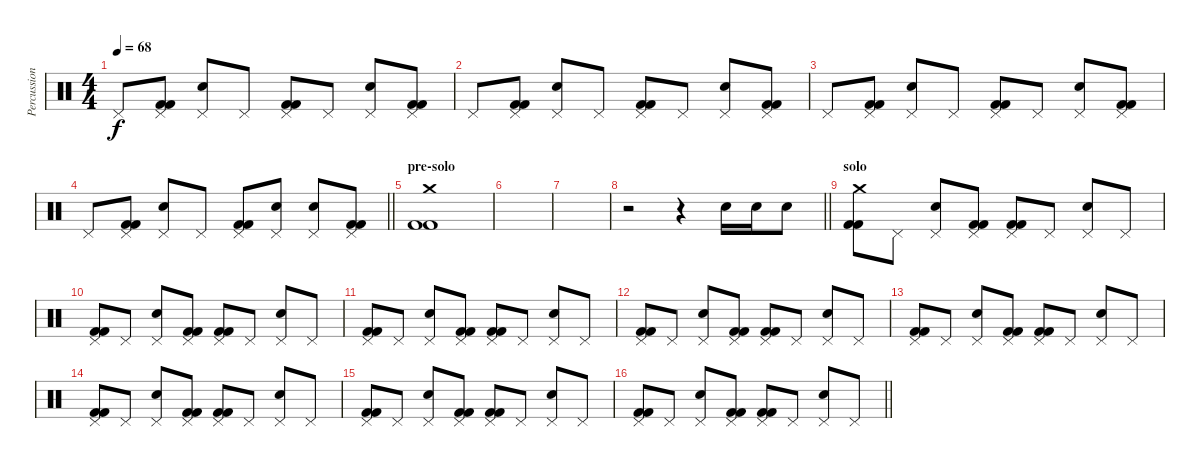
\track ("Percussion" "Percussion") {instrument percussion}
\staff {score}
\articulation defaults
\ts (4 4)
\tempo 68
\clef neutral
\ks c "Pedal Hi-Hat (hit)".8{dy f}
("Kick (hit) 2" "Kick (hit) 2" "Pedal Hi-Hat (hit)").8 ("Electric Snare (hit)" "Pedal Hi-Hat (hit)").8 "Pedal Hi-Hat (hit)".8 ("Kick (hit) 2" "Kick (hit) 2" "Pedal Hi-Hat (hit)").8 "Pedal Hi-Hat (hit)".8 ("Electric Snare (hit)" "Pedal Hi-Hat (hit)").8 ("Kick (hit) 2" "Kick (hit) 2" "Pedal Hi-Hat (hit)").8 |
"Pedal Hi-Hat (hit)".8 ("Kick (hit) 2" "Kick (hit) 2" "Pedal Hi-Hat (hit)").8 ("Electric Snare (hit)" "Pedal Hi-Hat (hit)").8 "Pedal Hi-Hat (hit)".8 ("Kick (hit) 2" "Kick (hit) 2" "Pedal Hi-Hat (hit)").8 "Pedal Hi-Hat (hit)".8 ("Electric Snare (hit)" "Pedal Hi-Hat (hit)").8 ("Kick (hit) 2" "Kick (hit) 2" "Pedal Hi-Hat (hit)").8 |
"Pedal Hi-Hat (hit)".8 ("Kick (hit) 2" "Kick (hit) 2" "Pedal Hi-Hat (hit)").8 ("Electric Snare (hit)" "Pedal Hi-Hat (hit)").8 "Pedal Hi-Hat (hit)".8 ("Kick (hit) 2" "Kick (hit) 2" "Pedal Hi-Hat (hit)").8 "Pedal Hi-Hat (hit)".8 ("Electric Snare (hit)" "Pedal Hi-Hat (hit)").8 ("Kick (hit) 2" "Kick (hit) 2" "Pedal Hi-Hat (hit)").8 |
\barLineRight lightlight "Pedal Hi-Hat (hit)".8
("Kick (hit) 2" "Kick (hit) 2" "Pedal Hi-Hat (hit)").8 ("Electric Snare (hit)" "Pedal Hi-Hat (hit)").8 "Pedal Hi-Hat (hit)".8 ("Kick (hit) 2" "Kick (hit) 2" "Pedal Hi-Hat (hit)").8 ("Electric Snare (hit)" "Pedal Hi-Hat (hit)").8 ("Electric Snare (hit)" "Pedal Hi-Hat (hit)").8 ("Kick (hit) 2" "Kick (hit) 2" "Pedal Hi-Hat (hit)").8 |
\section ("" "pre-solo")
("Kick (hit) 2" "Kick (hit) 2" "Crash medium (hit)").1 |
|
|
\barLineRight lightlight
r.2 r.4 "Electric Snare (hit)".16 "Electric Snare (hit)".16 "Electric Snare (hit)".8 |
\section ("" "solo")
("Kick (hit) 2" "Kick (hit) 2" "Crash medium (hit)").8 "Pedal Hi-Hat (hit)".8 ("Electric Snare (hit)" "Pedal Hi-Hat (hit)").8 ("Kick (hit) 2" "Kick (hit) 2" "Pedal Hi-Hat (hit)").8 ("Kick (hit) 2" "Kick (hit) 2" "Pedal Hi-Hat (hit)").8 "Pedal Hi-Hat (hit)".8 ("Electric Snare (hit)" "Pedal Hi-Hat (hit)").8 "Pedal Hi-Hat (hit)".8 |
("Kick (hit) 2" "Kick (hit) 2" "Pedal Hi-Hat (hit)").8 "Pedal Hi-Hat (hit)".8 ("Electric Snare (hit)" "Pedal Hi-Hat (hit)").8 ("Kick (hit) 2" "Kick (hit) 2" "Pedal Hi-Hat (hit)").8 ("Kick (hit) 2" "Kick (hit) 2" "Pedal Hi-Hat (hit)").8 "Pedal Hi-Hat (hit)".8 ("Electric Snare (hit)" "Pedal Hi-Hat (hit)").8 "Pedal Hi-Hat (hit)".8 |
("Kick (hit) 2" "Kick (hit) 2" "Pedal Hi-Hat (hit)").8 "Pedal Hi-Hat (hit)".8 ("Electric Snare (hit)" "Pedal Hi-Hat (hit)").8 ("Kick (hit) 2" "Kick (hit) 2" "Pedal Hi-Hat (hit)").8 ("Kick (hit) 2" "Kick (hit) 2" "Pedal Hi-Hat (hit)").8 "Pedal Hi-Hat (hit)".8 ("Electric Snare (hit)" "Pedal Hi-Hat (hit)").8 "Pedal Hi-Hat (hit)".8 |
("Kick (hit) 2" "Kick (hit) 2" "Pedal Hi-Hat (hit)").8 "Pedal Hi-Hat (hit)".8 ("Electric Snare (hit)" "Pedal Hi-Hat (hit)").8 ("Kick (hit) 2" "Kick (hit) 2" "Pedal Hi-Hat (hit)").8 ("Kick (hit) 2" "Kick (hit) 2" "Pedal Hi-Hat (hit)").8 "Pedal Hi-Hat (hit)".8 ("Electric Snare (hit)" "Pedal Hi-Hat (hit)").8 "Pedal Hi-Hat (hit)".8 |
("Kick (hit) 2" "Kick (hit) 2" "Pedal Hi-Hat (hit)").8 "Pedal Hi-Hat (hit)".8 ("Electric Snare (hit)" "Pedal Hi-Hat (hit)").8 ("Kick (hit) 2" "Kick (hit) 2" "Pedal Hi-Hat (hit)").8 ("Kick (hit) 2" "Kick (hit) 2" "Pedal Hi-Hat (hit)").8 "Pedal Hi-Hat (hit)".8 ("Electric Snare (hit)" "Pedal Hi-Hat (hit)").8 "Pedal Hi-Hat (hit)".8 |
("Kick (hit) 2" "Kick (hit) 2" "Pedal Hi-Hat (hit)").8 "Pedal Hi-Hat (hit)".8 ("Electric Snare (hit)" "Pedal Hi-Hat (hit)").8 ("Kick (hit) 2" "Kick (hit) 2" "Pedal Hi-Hat (hit)").8 ("Kick (hit) 2" "Kick (hit) 2" "Pedal Hi-Hat (hit)").8 "Pedal Hi-Hat (hit)".8 ("Electric Snare (hit)" "Pedal Hi-Hat (hit)").8 "Pedal Hi-Hat (hit)".8 |
("Kick (hit) 2" "Kick (hit) 2" "Pedal Hi-Hat (hit)").8 "Pedal Hi-Hat (hit)".8 ("Electric Snare (hit)" "Pedal Hi-Hat (hit)").8 ("Kick (hit) 2" "Kick (hit) 2" "Pedal Hi-Hat (hit)").8 ("Kick (hit) 2" "Kick (hit) 2" "Pedal Hi-Hat (hit)").8 "Pedal Hi-Hat (hit)".8 ("Electric Snare (hit)" "Pedal Hi-Hat (hit)").8 "Pedal Hi-Hat (hit)".8 |
\barLineRight lightlight
("Kick (hit) 2" "Kick (hit) 2" "Pedal Hi-Hat (hit)").8 "Pedal Hi-Hat (hit)".8 ("Electric Snare (hit)" "Pedal Hi-Hat (hit)").8 ("Kick (hit) 2" "Kick (hit) 2" "Pedal Hi-Hat (hit)").8 ("Kick (hit) 2" "Kick (hit) 2" "Pedal Hi-Hat (hit)").8 "Pedal Hi-Hat (hit)".8 ("Electric Snare (hit)" "Pedal Hi-Hat (hit)").8 "Pedal Hi-Hat (hit)".8
